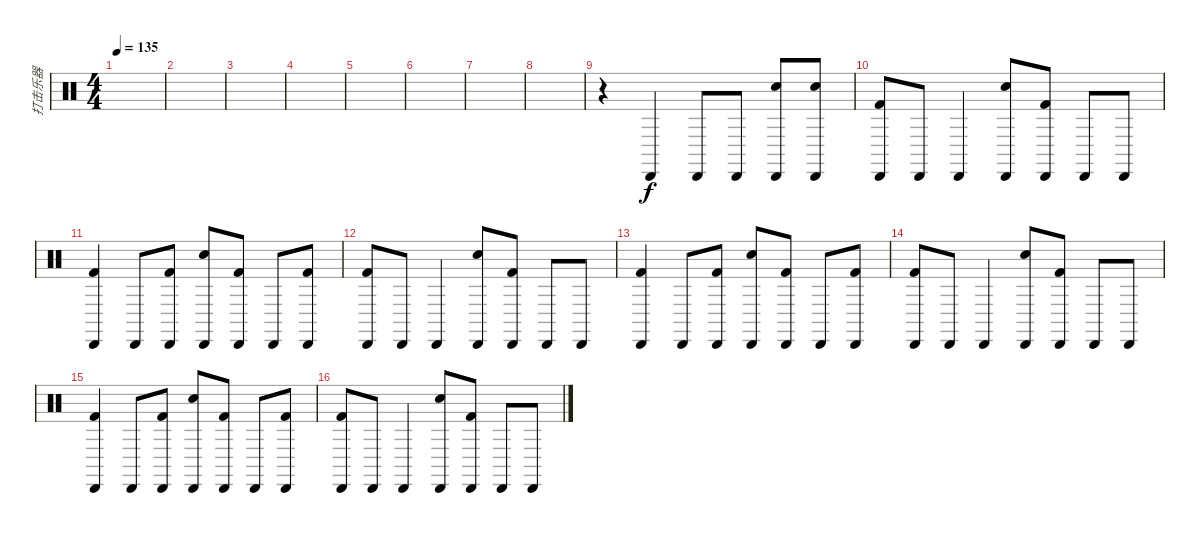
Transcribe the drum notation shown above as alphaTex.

\track ("打击乐器" "打击乐器") {instrument percussion}
\staff {score}
\articulation defaults
\ts (4 4)
\tempo 135
\clef neutral
\ks c
|
|
|
|
|
|
|
|
r.4 "Cabasa (hit)".4 "Cabasa (hit)".8 "Cabasa (hit)".8 ("Snare (hit) 2" "Cabasa (hit)").8 ("Snare (hit) 2" "Cabasa (hit)").8 |
("Cabasa (hit)" "Kick (hit) 2").8 "Cabasa (hit)".8 "Cabasa (hit)".4 ("Snare (hit) 2" "Cabasa (hit)").8 ("Cabasa (hit)" "Kick (hit) 2").8 "Cabasa (hit)".8 "Cabasa (hit)".8 |
("Cabasa (hit)" "Kick (hit) 2").4 "Cabasa (hit)".8 ("Cabasa (hit)" "Kick (hit) 2").8 ("Snare (hit) 2" "Cabasa (hit)").8 ("Cabasa (hit)" "Kick (hit) 2").8 "Cabasa (hit)".8 ("Cabasa (hit)" "Kick (hit) 2").8 |
("Cabasa (hit)" "Kick (hit) 2").8 "Cabasa (hit)".8 "Cabasa (hit)".4 ("Snare (hit) 2" "Cabasa (hit)").8 ("Cabasa (hit)" "Kick (hit) 2").8 "Cabasa (hit)".8 "Cabasa (hit)".8 |
("Cabasa (hit)" "Kick (hit) 2").4 "Cabasa (hit)".8 ("Cabasa (hit)" "Kick (hit) 2").8 ("Snare (hit) 2" "Cabasa (hit)").8 ("Cabasa (hit)" "Kick (hit) 2").8 "Cabasa (hit)".8 ("Cabasa (hit)" "Kick (hit) 2").8 |
("Cabasa (hit)" "Kick (hit) 2").8 "Cabasa (hit)".8 "Cabasa (hit)".4 ("Snare (hit) 2" "Cabasa (hit)").8 ("Cabasa (hit)" "Kick (hit) 2").8 "Cabasa (hit)".8 "Cabasa (hit)".8 |
("Cabasa (hit)" "Kick (hit) 2").4 "Cabasa (hit)".8 ("Cabasa (hit)" "Kick (hit) 2").8 ("Snare (hit) 2" "Cabasa (hit)").8 ("Cabasa (hit)" "Kick (hit) 2").8 "Cabasa (hit)".8 ("Cabasa (hit)" "Kick (hit) 2").8 |
("Cabasa (hit)" "Kick (hit) 2").8 "Cabasa (hit)".8 "Cabasa (hit)".4 ("Snare (hit) 2" "Cabasa (hit)").8 ("Cabasa (hit)" "Kick (hit) 2").8 "Cabasa (hit)".8 "Cabasa (hit)".8
